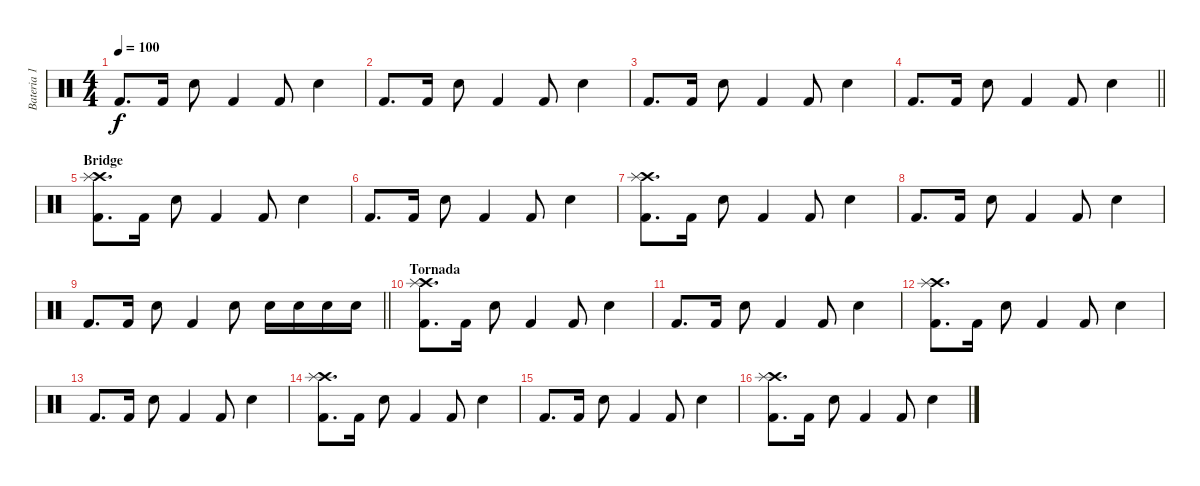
\track ("Bateria 1" "Bateria 1") {instrument percussion}
\staff {score}
\articulation defaults
\ts (4 4)
\tempo 100
\clef neutral
\ks c "Kick (hit) 2".8{d dy f} "Kick (hit) 2".16 "Electric Snare (hit)".8 "Kick (hit) 2".4 "Kick (hit) 2".8 "Electric Snare (hit)".4
|
"Kick (hit) 2".8{d} "Kick (hit) 2".16 "Electric Snare (hit)".8 "Kick (hit) 2".4 "Kick (hit) 2".8 "Electric Snare (hit)".4 |
"Kick (hit) 2".8{d} "Kick (hit) 2".16 "Electric Snare (hit)".8 "Kick (hit) 2".4 "Kick (hit) 2".8 "Electric Snare (hit)".4 |
\barLineRight lightlight "Kick (hit) 2".8{d} "Kick (hit) 2".16 "Electric Snare (hit)".8 "Kick (hit) 2".4 "Kick (hit) 2".8 "Electric Snare (hit)".4
|
\section ("" "Bridge")
("Crash high (hit)" "Kick (hit) 2" "Splash (hit)").8{d} "Kick (hit) 2".16 "Electric Snare (hit)".8 "Kick (hit) 2".4 "Kick (hit) 2".8 "Electric Snare (hit)".4 |
"Kick (hit) 2".8{d} "Kick (hit) 2".16 "Electric Snare (hit)".8 "Kick (hit) 2".4 "Kick (hit) 2".8 "Electric Snare (hit)".4 |
("Crash high (hit)" "Kick (hit) 2" "Splash (hit)").8{d} "Kick (hit) 2".16 "Electric Snare (hit)".8 "Kick (hit) 2".4 "Kick (hit) 2".8 "Electric Snare (hit)".4 |
"Kick (hit) 2".8{d} "Kick (hit) 2".16 "Electric Snare (hit)".8 "Kick (hit) 2".4 "Kick (hit) 2".8 "Electric Snare (hit)".4 |
\barLineRight lightlight "Kick (hit) 2".8{d} "Kick (hit) 2".16 "Electric Snare (hit)".8 "Kick (hit) 2".4 "Electric Snare (hit)".8 "Electric Snare (hit)".16 "Electric Snare (hit)".16 "Electric Snare (hit)".16 "Electric Snare (hit)".16
|
\section ("" "Tornada")
("Crash high (hit)" "Kick (hit) 2" "Splash (hit)").8{d} "Kick (hit) 2".16 "Electric Snare (hit)".8 "Kick (hit) 2".4 "Kick (hit) 2".8 "Electric Snare (hit)".4 |
"Kick (hit) 2".8{d} "Kick (hit) 2".16 "Electric Snare (hit)".8 "Kick (hit) 2".4 "Kick (hit) 2".8 "Electric Snare (hit)".4 |
("Crash high (hit)" "Kick (hit) 2" "Splash (hit)").8{d} "Kick (hit) 2".16 "Electric Snare (hit)".8 "Kick (hit) 2".4 "Kick (hit) 2".8 "Electric Snare (hit)".4 |
"Kick (hit) 2".8{d} "Kick (hit) 2".16 "Electric Snare (hit)".8 "Kick (hit) 2".4 "Kick (hit) 2".8 "Electric Snare (hit)".4 |
("Crash high (hit)" "Kick (hit) 2" "Splash (hit)").8{d} "Kick (hit) 2".16 "Electric Snare (hit)".8 "Kick (hit) 2".4 "Kick (hit) 2".8 "Electric Snare (hit)".4 |
"Kick (hit) 2".8{d} "Kick (hit) 2".16 "Electric Snare (hit)".8 "Kick (hit) 2".4 "Kick (hit) 2".8 "Electric Snare (hit)".4 |
("Crash high (hit)" "Kick (hit) 2" "Splash (hit)").8{d} "Kick (hit) 2".16 "Electric Snare (hit)".8 "Kick (hit) 2".4 "Kick (hit) 2".8 "Electric Snare (hit)".4
